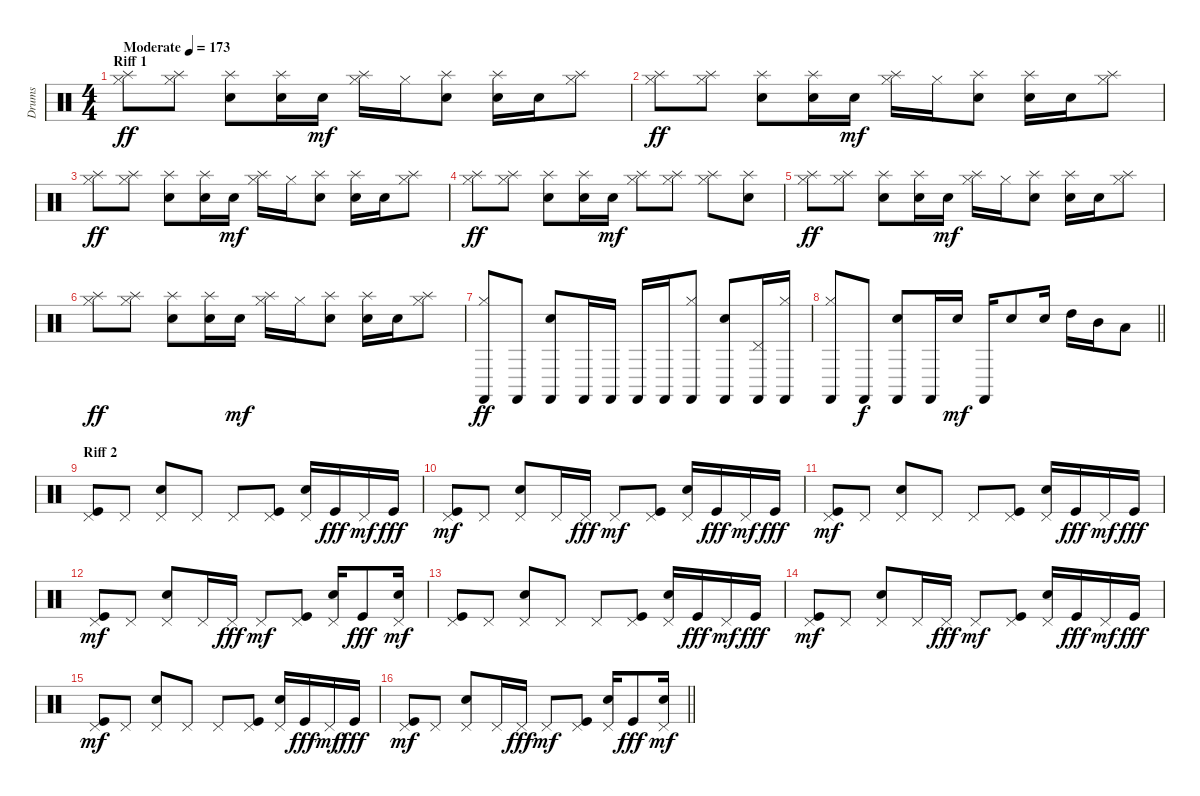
\track ("Drums" "Drums") {instrument percussion}
\staff {score}
\articulation defaults
\ts (4 4)
\section ("" "Riff 1")
\tempo (173 "Moderate")
\clef neutral
\ks c
("Hi-Hat (closed)" "Splash (hit)").8{dy ff} ("Hi-Hat (closed)" "Splash (hit)").8 ("Electric Snare (hit)" "Splash (hit)").8 ("Snare (hit) 2" "Splash (hit)").16 "Snare (hit) 2".16{dy mf} ("Hi-Hat (closed)" "Splash (hit)").16 "Hi-Hat (closed)".16 ("Electric Snare (hit)" "Splash (hit)").8 ("Electric Snare (hit)" "Splash (hit)").16 "Snare (hit) 2".16 ("Hi-Hat (closed)" "Splash (hit)").8 |
("Hi-Hat (closed)" "Splash (hit)").8{dy ff} ("Hi-Hat (closed)" "Splash (hit)").8 ("Electric Snare (hit)" "Splash (hit)").8 ("Snare (hit) 2" "Splash (hit)").16 "Snare (hit) 2".16{dy mf} ("Hi-Hat (closed)" "Splash (hit)").16 "Hi-Hat (closed)".16 ("Electric Snare (hit)" "Splash (hit)").8 ("Electric Snare (hit)" "Splash (hit)").16 "Snare (hit) 2".16 ("Hi-Hat (closed)" "Splash (hit)").8 |
("Hi-Hat (closed)" "Splash (hit)").8{dy ff} ("Hi-Hat (closed)" "Splash (hit)").8 ("Electric Snare (hit)" "Splash (hit)").8 ("Snare (hit) 2" "Splash (hit)").16 "Snare (hit) 2".16{dy mf} ("Hi-Hat (closed)" "Splash (hit)").16 "Hi-Hat (closed)".16 ("Electric Snare (hit)" "Splash (hit)").8 ("Electric Snare (hit)" "Splash (hit)").16 "Snare (hit) 2".16 ("Hi-Hat (closed)" "Splash (hit)").8 |
("Hi-Hat (closed)" "Splash (hit)").8{dy ff} ("Hi-Hat (closed)" "Splash (hit)").8 ("Electric Snare (hit)" "Splash (hit)").8 ("Snare (hit) 2" "Splash (hit)").16 "Snare (hit) 2".16{dy mf} ("Hi-Hat (closed)" "Splash (hit)").8 ("Hi-Hat (closed)" "Splash (hit)").8 ("Hi-Hat (closed)" "Splash (hit)").8 ("Snare (hit) 2" "Splash (hit)").8 |
("Hi-Hat (closed)" "Splash (hit)").8{dy ff} ("Hi-Hat (closed)" "Splash (hit)").8 ("Electric Snare (hit)" "Splash (hit)").8 ("Snare (hit) 2" "Splash (hit)").16 "Snare (hit) 2".16{dy mf} ("Hi-Hat (closed)" "Splash (hit)").16 "Hi-Hat (closed)".16 ("Electric Snare (hit)" "Splash (hit)").8 ("Electric Snare (hit)" "Splash (hit)").16 "Snare (hit) 2".16 ("Hi-Hat (closed)" "Splash (hit)").8 |
("Hi-Hat (closed)" "Splash (hit)").8{dy ff} ("Hi-Hat (closed)" "Splash (hit)").8 ("Electric Snare (hit)" "Splash (hit)").8 ("Snare (hit) 2" "Splash (hit)").16 "Snare (hit) 2".16{dy mf} ("Hi-Hat (closed)" "Splash (hit)").16 "Hi-Hat (closed)".16 ("Electric Snare (hit)" "Splash (hit)").8 ("Electric Snare (hit)" "Splash (hit)").16 "Snare (hit) 2".16 ("Hi-Hat (closed)" "Splash (hit)").8 |
("Hi-Hat (closed)" "Castanets (hit)").8{dy ff} "Castanets (hit)".8 ("Snare (hit) 2" "Castanets (hit)").8 "Castanets (hit)".16 "Castanets (hit)".16 "Castanets (hit)".16 "Castanets (hit)".16 ("Hi-Hat (closed)" "Castanets (hit)").8 ("Snare (hit) 2" "Castanets (hit)").8 ("Pedal Hi-Hat (hit)" "Castanets (hit)").16 ("Hi-Hat (closed)" "Castanets (hit)").16 |
\barLineRight lightlight
("Hi-Hat (closed)" "Castanets (hit)").8 "Castanets (hit)".8{dy f} ("Snare (hit) 2" "Castanets (hit)").8 "Castanets (hit)".16 "Snare (hit) 2".16{dy mf} "Castanets (hit)".16 "Snare (hit) 2".8 "Snare (hit) 2".16 "High Tom (hit)".16 "Mid Tom (hit)".16 "Low Tom (hit)".8 |
\section ("" "Riff 2")
("Kick (hit)" "Pedal Hi-Hat (hit)").8 "Pedal Hi-Hat (hit)".8 ("Snare (hit) 2" "Pedal Hi-Hat (hit)").8 "Pedal Hi-Hat (hit)".8 "Pedal Hi-Hat (hit)".8 ("Kick (hit)" "Pedal Hi-Hat (hit)").8 ("Snare (hit) 2" "Pedal Hi-Hat (hit)").16 "Kick (hit)".16{dy fff} "Pedal Hi-Hat (hit)".16{dy mf} "Kick (hit)".16{dy fff} |
("Kick (hit)" "Pedal Hi-Hat (hit)").8{dy mf} "Pedal Hi-Hat (hit)".8 ("Snare (hit) 2" "Pedal Hi-Hat (hit)").8 "Pedal Hi-Hat (hit)".16 "Pedal Hi-Hat (hit)".16{dy fff} "Pedal Hi-Hat (hit)".8{dy mf} ("Kick (hit)" "Pedal Hi-Hat (hit)").8 ("Snare (hit) 2" "Pedal Hi-Hat (hit)").16 "Kick (hit)".16{dy fff} "Pedal Hi-Hat (hit)".16{dy mf} "Kick (hit)".16{dy fff} |
("Kick (hit)" "Pedal Hi-Hat (hit)").8{dy mf} "Pedal Hi-Hat (hit)".8 ("Snare (hit) 2" "Pedal Hi-Hat (hit)").8 "Pedal Hi-Hat (hit)".8 "Pedal Hi-Hat (hit)".8 ("Kick (hit)" "Pedal Hi-Hat (hit)").8 ("Snare (hit) 2" "Pedal Hi-Hat (hit)").16 "Kick (hit)".16{dy fff} "Pedal Hi-Hat (hit)".16{dy mf} "Kick (hit)".16{dy fff} |
("Kick (hit)" "Pedal Hi-Hat (hit)").8{dy mf} "Pedal Hi-Hat (hit)".8 ("Snare (hit) 2" "Pedal Hi-Hat (hit)").8 "Pedal Hi-Hat (hit)".16 "Pedal Hi-Hat (hit)".16{dy fff} "Pedal Hi-Hat (hit)".8{dy mf} ("Kick (hit)" "Pedal Hi-Hat (hit)").8 ("Snare (hit) 2" "Pedal Hi-Hat (hit)").16 "Kick (hit)".8{dy fff} ("Snare (hit) 2" "Pedal Hi-Hat (hit)").16{dy mf} |
("Kick (hit)" "Pedal Hi-Hat (hit)").8 "Pedal Hi-Hat (hit)".8 ("Snare (hit) 2" "Pedal Hi-Hat (hit)").8 "Pedal Hi-Hat (hit)".8 "Pedal Hi-Hat (hit)".8 ("Kick (hit)" "Pedal Hi-Hat (hit)").8 ("Snare (hit) 2" "Pedal Hi-Hat (hit)").16 "Kick (hit)".16{dy fff} "Pedal Hi-Hat (hit)".16{dy mf} "Kick (hit)".16{dy fff} |
("Kick (hit)" "Pedal Hi-Hat (hit)").8{dy mf} "Pedal Hi-Hat (hit)".8 ("Snare (hit) 2" "Pedal Hi-Hat (hit)").8 "Pedal Hi-Hat (hit)".16 "Pedal Hi-Hat (hit)".16{dy fff} "Pedal Hi-Hat (hit)".8{dy mf} ("Kick (hit)" "Pedal Hi-Hat (hit)").8 ("Snare (hit) 2" "Pedal Hi-Hat (hit)").16 "Kick (hit)".16{dy fff} "Pedal Hi-Hat (hit)".16{dy mf} "Kick (hit)".16{dy fff} |
("Kick (hit)" "Pedal Hi-Hat (hit)").8{dy mf} "Pedal Hi-Hat (hit)".8 ("Snare (hit) 2" "Pedal Hi-Hat (hit)").8 "Pedal Hi-Hat (hit)".8 "Pedal Hi-Hat (hit)".8 ("Kick (hit)" "Pedal Hi-Hat (hit)").8 ("Snare (hit) 2" "Pedal Hi-Hat (hit)").16 "Kick (hit)".16{dy fff} "Pedal Hi-Hat (hit)".16{dy mf} "Kick (hit)".16{dy fff} |
\barLineRight lightlight
("Kick (hit)" "Pedal Hi-Hat (hit)").8{dy mf} "Pedal Hi-Hat (hit)".8 ("Snare (hit) 2" "Pedal Hi-Hat (hit)").8 "Pedal Hi-Hat (hit)".16 "Pedal Hi-Hat (hit)".16{dy fff} "Pedal Hi-Hat (hit)".8{dy mf} ("Kick (hit)" "Pedal Hi-Hat (hit)").8 ("Snare (hit) 2" "Pedal Hi-Hat (hit)").16 "Kick (hit)".8{dy fff} ("Snare (hit) 2" "Pedal Hi-Hat (hit)").16{dy mf}
